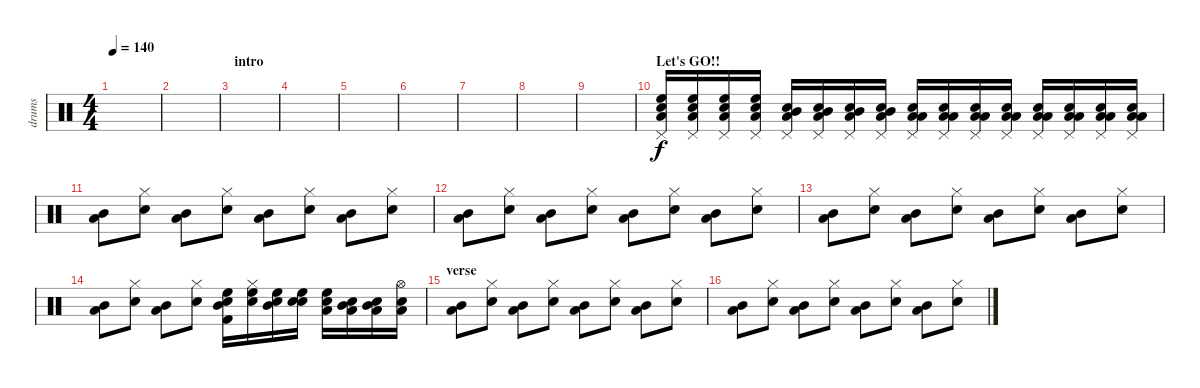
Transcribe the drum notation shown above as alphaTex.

\track ("drums" "drums") {instrument percussion}
\staff {score}
\articulation defaults
\ts (4 4)
\tempo 140
\clef neutral
\ks c
|
|
\section ("" "intro")
|
|
|
|
|
|
|
\section ("" "Let's GO!!")
("Low Floor Tom (hit)" "High Floor Tom (hit)" "Snare (hit) 2" "Pedal Hi-Hat (hit)").16 ("Low Floor Tom (hit)" "High Floor Tom (hit)" "Snare (hit) 2" "Pedal Hi-Hat (hit)").16 ("Low Floor Tom (hit)" "High Floor Tom (hit)" "Snare (hit) 2" "Pedal Hi-Hat (hit)").16 ("Low Floor Tom (hit)" "High Floor Tom (hit)" "Snare (hit) 2" "Pedal Hi-Hat (hit)").16 ("Low Floor Tom (hit)" "Mid Tom (hit)" "Snare (hit) 2" "Pedal Hi-Hat (hit)").16 ("Low Floor Tom (hit)" "Mid Tom (hit)" "Snare (hit) 2" "Pedal Hi-Hat (hit)").16 ("Low Floor Tom (hit)" "Mid Tom (hit)" "Snare (hit) 2" "Pedal Hi-Hat (hit)").16 ("Low Floor Tom (hit)" "Mid Tom (hit)" "Snare (hit) 2" "Pedal Hi-Hat (hit)").16 ("Low Floor Tom (hit)" "Low Tom (hit)" "Snare (hit) 2" "Pedal Hi-Hat (hit)").16 ("Low Floor Tom (hit)" "Low Tom (hit)" "Snare (hit) 2" "Pedal Hi-Hat (hit)").16 ("Low Floor Tom (hit)" "Low Tom (hit)" "Snare (hit) 2" "Pedal Hi-Hat (hit)").16 ("Low Floor Tom (hit)" "Low Tom (hit)" "Snare (hit) 2" "Pedal Hi-Hat (hit)").16 ("Low Floor Tom (hit)" "Low Floor Tom (hit)" "Snare (hit) 2" "Pedal Hi-Hat (hit)").16 ("Low Floor Tom (hit)" "Low Floor Tom (hit)" "Snare (hit) 2" "Pedal Hi-Hat (hit)").16 ("Low Floor Tom (hit)" "Low Floor Tom (hit)" "Snare (hit) 2" "Pedal Hi-Hat (hit)").16 ("Low Floor Tom (hit)" "Low Floor Tom (hit)" "Snare (hit) 2" "Pedal Hi-Hat (hit)").16 |
("Low Floor Tom (hit)" "Mid Tom (hit)").8 ("Hi-Hat (closed)" "Snare (hit) 2").8 ("Mid Tom (hit)" "Low Floor Tom (hit)").8 ("Snare (hit) 2" "Hi-Hat (closed)").8 ("Mid Tom (hit)" "Low Floor Tom (hit)").8 ("Hi-Hat (closed)" "Snare (hit) 2").8 ("Mid Tom (hit)" "Low Floor Tom (hit)").8 ("Hi-Hat (closed)" "Snare (hit) 2").8 |
("Low Floor Tom (hit)" "Mid Tom (hit)").8 ("Hi-Hat (closed)" "Snare (hit) 2").8 ("Mid Tom (hit)" "Low Floor Tom (hit)").8 ("Snare (hit) 2" "Hi-Hat (closed)").8 ("Mid Tom (hit)" "Low Floor Tom (hit)").8 ("Hi-Hat (closed)" "Snare (hit) 2").8 ("Mid Tom (hit)" "Low Floor Tom (hit)").8 ("Hi-Hat (closed)" "Snare (hit) 2").8 |
("Low Floor Tom (hit)" "Mid Tom (hit)").8 ("Hi-Hat (closed)" "Snare (hit) 2").8 ("Mid Tom (hit)" "Low Floor Tom (hit)").8 ("Snare (hit) 2" "Hi-Hat (closed)").8 ("Mid Tom (hit)" "Low Floor Tom (hit)").8 ("Hi-Hat (closed)" "Snare (hit) 2").8 ("Mid Tom (hit)" "Low Floor Tom (hit)").8 ("Hi-Hat (closed)" "Snare (hit) 2").8 |
("Low Floor Tom (hit)" "Mid Tom (hit)").8 ("Hi-Hat (closed)" "Snare (hit) 2").8 ("Mid Tom (hit)" "Low Floor Tom (hit)").8 ("Snare (hit) 2" "Hi-Hat (closed)").8 ("Snare (hit) 2" "Mid Tom (hit)" "High Floor Tom (hit)" "Kick (hit) 2").16 ("Hi-Hat (closed)" "High Floor Tom (hit)" "Snare (hit) 2").16 ("Mid Tom (hit)" "High Floor Tom (hit)" "Snare (hit) 2").16 ("Snare (hit) 2" "High Floor Tom (hit)" "Snare (hit) 2").16 ("Low Floor Tom (hit)" "High Floor Tom (hit)" "Snare (hit) 2").16 ("Low Floor Tom (hit)" "Mid Tom (hit)" "Snare (hit) 2").16 ("Low Floor Tom (hit)" "Mid Tom (hit)" "Snare (hit) 2").16 ("Low Floor Tom (hit)" "Hi-Hat (open)" "Snare (hit) 2").16 |
\section ("" "verse")
("Low Floor Tom (hit)" "Mid Tom (hit)").8 ("Hi-Hat (closed)" "Snare (hit) 2").8 ("Mid Tom (hit)" "Low Floor Tom (hit)").8 ("Snare (hit) 2" "Hi-Hat (closed)").8 ("Mid Tom (hit)" "Low Floor Tom (hit)").8 ("Hi-Hat (closed)" "Snare (hit) 2").8 ("Mid Tom (hit)" "Low Floor Tom (hit)").8 ("Hi-Hat (closed)" "Snare (hit) 2").8 |
("Low Floor Tom (hit)" "Mid Tom (hit)").8 ("Hi-Hat (closed)" "Snare (hit) 2").8 ("Mid Tom (hit)" "Low Floor Tom (hit)").8 ("Snare (hit) 2" "Hi-Hat (closed)").8 ("Mid Tom (hit)" "Low Floor Tom (hit)").8 ("Hi-Hat (closed)" "Snare (hit) 2").8 ("Mid Tom (hit)" "Low Floor Tom (hit)").8 ("Hi-Hat (closed)" "Snare (hit) 2").8
